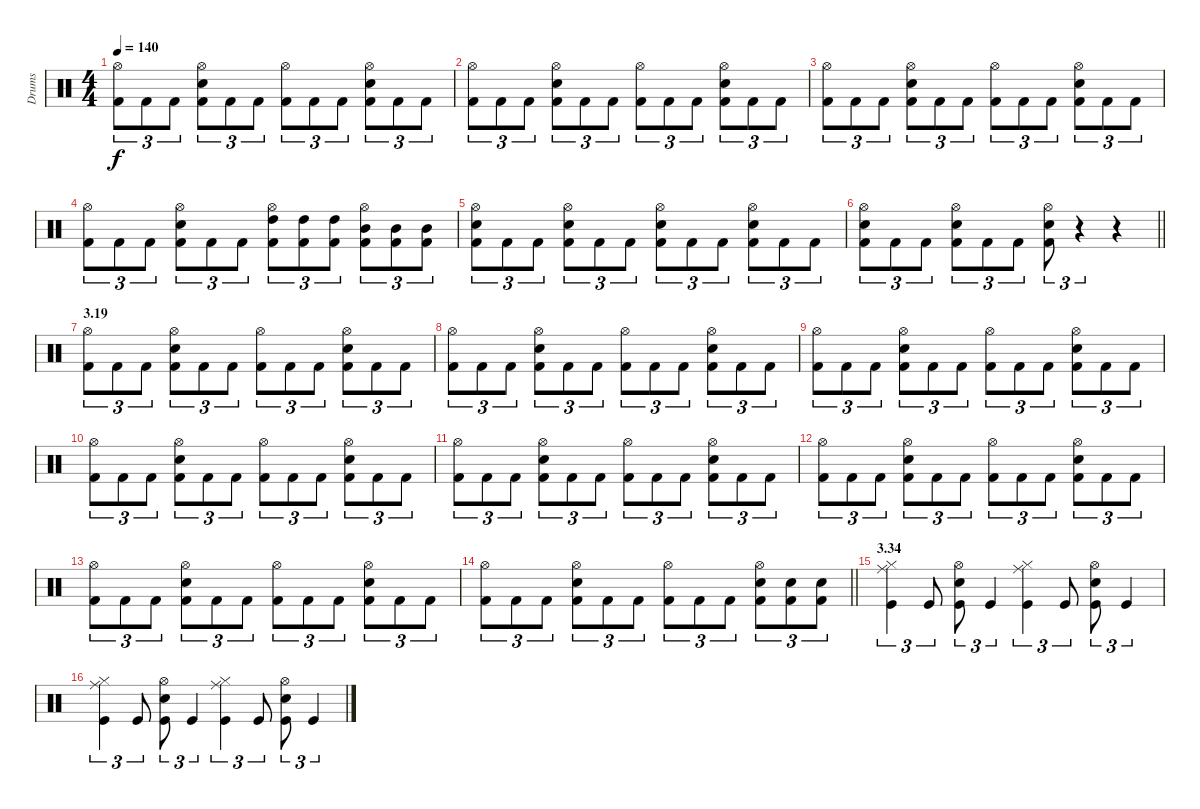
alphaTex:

\track ("Drums" "Drums") {instrument percussion}
\staff {score}
\articulation defaults
\ts (4 4)
\tempo 140
\clef neutral
\ks c
("Hi-Hat (open)" "Kick (hit) 2").8{tu (3 2) dy f} "Kick (hit) 2".8{tu (3 2)} "Kick (hit) 2".8{tu (3 2)} ("Hi-Hat (open)" "Electric Snare (hit)" "Kick (hit) 2").8{tu (3 2)} "Kick (hit) 2".8{tu (3 2)} "Kick (hit) 2".8{tu (3 2)} ("Hi-Hat (open)" "Kick (hit) 2").8{tu (3 2)} "Kick (hit) 2".8{tu (3 2)} "Kick (hit) 2".8{tu (3 2)} ("Hi-Hat (open)" "Electric Snare (hit)" "Kick (hit) 2").8{tu (3 2)} "Kick (hit) 2".8{tu (3 2)} "Kick (hit) 2".8{tu (3 2)} |
("Hi-Hat (open)" "Kick (hit) 2").8{tu (3 2)} "Kick (hit) 2".8{tu (3 2)} "Kick (hit) 2".8{tu (3 2)} ("Hi-Hat (open)" "Electric Snare (hit)" "Kick (hit) 2").8{tu (3 2)} "Kick (hit) 2".8{tu (3 2)} "Kick (hit) 2".8{tu (3 2)} ("Hi-Hat (open)" "Kick (hit) 2").8{tu (3 2)} "Kick (hit) 2".8{tu (3 2)} "Kick (hit) 2".8{tu (3 2)} ("Hi-Hat (open)" "Electric Snare (hit)" "Kick (hit) 2").8{tu (3 2)} "Kick (hit) 2".8{tu (3 2)} "Kick (hit) 2".8{tu (3 2)} |
("Hi-Hat (open)" "Kick (hit) 2").8{tu (3 2)} "Kick (hit) 2".8{tu (3 2)} "Kick (hit) 2".8{tu (3 2)} ("Hi-Hat (open)" "Electric Snare (hit)" "Kick (hit) 2").8{tu (3 2)} "Kick (hit) 2".8{tu (3 2)} "Kick (hit) 2".8{tu (3 2)} ("Hi-Hat (open)" "Kick (hit) 2").8{tu (3 2)} "Kick (hit) 2".8{tu (3 2)} "Kick (hit) 2".8{tu (3 2)} ("Hi-Hat (open)" "Electric Snare (hit)" "Kick (hit) 2").8{tu (3 2)} "Kick (hit) 2".8{tu (3 2)} "Kick (hit) 2".8{tu (3 2)} |
("Hi-Hat (open)" "Kick (hit) 2").8{tu (3 2)} "Kick (hit) 2".8{tu (3 2)} "Kick (hit) 2".8{tu (3 2)} ("Hi-Hat (open)" "Electric Snare (hit)" "Kick (hit) 2").8{tu (3 2)} "Kick (hit) 2".8{tu (3 2)} "Kick (hit) 2".8{tu (3 2)} ("Hi-Hat (open)" "High Tom (hit)" "Kick (hit) 2").8{tu (3 2)} ("High Tom (hit)" "Kick (hit) 2").8{tu (3 2)} ("High Tom (hit)" "Kick (hit) 2").8{tu (3 2)} ("Hi-Hat (open)" "Mid Tom (hit)" "Kick (hit) 2").8{tu (3 2)} ("Mid Tom (hit)" "Kick (hit) 2").8{tu (3 2)} ("Mid Tom (hit)" "Kick (hit) 2").8{tu (3 2)} |
("Hi-Hat (open)" "Electric Snare (hit)" "Kick (hit) 2").8{tu (3 2)} "Kick (hit) 2".8{tu (3 2)} "Kick (hit) 2".8{tu (3 2)} ("Hi-Hat (open)" "Electric Snare (hit)" "Kick (hit) 2").8{tu (3 2)} "Kick (hit) 2".8{tu (3 2)} "Kick (hit) 2".8{tu (3 2)} ("Hi-Hat (open)" "Electric Snare (hit)" "Kick (hit) 2").8{tu (3 2)} "Kick (hit) 2".8{tu (3 2)} "Kick (hit) 2".8{tu (3 2)} ("Hi-Hat (open)" "Electric Snare (hit)" "Kick (hit) 2").8{tu (3 2)} "Kick (hit) 2".8{tu (3 2)} "Kick (hit) 2".8{tu (3 2)} |
\barLineRight lightlight
("Hi-Hat (open)" "Electric Snare (hit)" "Kick (hit) 2").8{tu (3 2)} "Kick (hit) 2".8{tu (3 2)} "Kick (hit) 2".8{tu (3 2)} ("Hi-Hat (open)" "Electric Snare (hit)" "Kick (hit) 2").8{tu (3 2)} "Kick (hit) 2".8{tu (3 2)} "Kick (hit) 2".8{tu (3 2)} ("Hi-Hat (open)" "Electric Snare (hit)" "Kick (hit) 2").8{tu (3 2)} r.4{tu (3 2)} r.4 |
\section ("" "3.19")
("Hi-Hat (open)" "Kick (hit) 2").8{tu (3 2)} "Kick (hit) 2".8{tu (3 2)} "Kick (hit) 2".8{tu (3 2)} ("Hi-Hat (open)" "Electric Snare (hit)" "Kick (hit) 2").8{tu (3 2)} "Kick (hit) 2".8{tu (3 2)} "Kick (hit) 2".8{tu (3 2)} ("Hi-Hat (open)" "Kick (hit) 2").8{tu (3 2)} "Kick (hit) 2".8{tu (3 2)} "Kick (hit) 2".8{tu (3 2)} ("Hi-Hat (open)" "Electric Snare (hit)" "Kick (hit) 2").8{tu (3 2)} "Kick (hit) 2".8{tu (3 2)} "Kick (hit) 2".8{tu (3 2)} |
("Hi-Hat (open)" "Kick (hit) 2").8{tu (3 2)} "Kick (hit) 2".8{tu (3 2)} "Kick (hit) 2".8{tu (3 2)} ("Hi-Hat (open)" "Electric Snare (hit)" "Kick (hit) 2").8{tu (3 2)} "Kick (hit) 2".8{tu (3 2)} "Kick (hit) 2".8{tu (3 2)} ("Hi-Hat (open)" "Kick (hit) 2").8{tu (3 2)} "Kick (hit) 2".8{tu (3 2)} "Kick (hit) 2".8{tu (3 2)} ("Hi-Hat (open)" "Electric Snare (hit)" "Kick (hit) 2").8{tu (3 2)} "Kick (hit) 2".8{tu (3 2)} "Kick (hit) 2".8{tu (3 2)} |
("Hi-Hat (open)" "Kick (hit) 2").8{tu (3 2)} "Kick (hit) 2".8{tu (3 2)} "Kick (hit) 2".8{tu (3 2)} ("Hi-Hat (open)" "Electric Snare (hit)" "Kick (hit) 2").8{tu (3 2)} "Kick (hit) 2".8{tu (3 2)} "Kick (hit) 2".8{tu (3 2)} ("Hi-Hat (open)" "Kick (hit) 2").8{tu (3 2)} "Kick (hit) 2".8{tu (3 2)} "Kick (hit) 2".8{tu (3 2)} ("Hi-Hat (open)" "Electric Snare (hit)" "Kick (hit) 2").8{tu (3 2)} "Kick (hit) 2".8{tu (3 2)} "Kick (hit) 2".8{tu (3 2)} |
("Hi-Hat (open)" "Kick (hit) 2").8{tu (3 2)} "Kick (hit) 2".8{tu (3 2)} "Kick (hit) 2".8{tu (3 2)} ("Hi-Hat (open)" "Electric Snare (hit)" "Kick (hit) 2").8{tu (3 2)} "Kick (hit) 2".8{tu (3 2)} "Kick (hit) 2".8{tu (3 2)} ("Hi-Hat (open)" "Kick (hit) 2").8{tu (3 2)} "Kick (hit) 2".8{tu (3 2)} "Kick (hit) 2".8{tu (3 2)} ("Hi-Hat (open)" "Electric Snare (hit)" "Kick (hit) 2").8{tu (3 2)} "Kick (hit) 2".8{tu (3 2)} "Kick (hit) 2".8{tu (3 2)} |
("Hi-Hat (open)" "Kick (hit) 2").8{tu (3 2)} "Kick (hit) 2".8{tu (3 2)} "Kick (hit) 2".8{tu (3 2)} ("Hi-Hat (open)" "Electric Snare (hit)" "Kick (hit) 2").8{tu (3 2)} "Kick (hit) 2".8{tu (3 2)} "Kick (hit) 2".8{tu (3 2)} ("Hi-Hat (open)" "Kick (hit) 2").8{tu (3 2)} "Kick (hit) 2".8{tu (3 2)} "Kick (hit) 2".8{tu (3 2)} ("Hi-Hat (open)" "Electric Snare (hit)" "Kick (hit) 2").8{tu (3 2)} "Kick (hit) 2".8{tu (3 2)} "Kick (hit) 2".8{tu (3 2)} |
("Hi-Hat (open)" "Kick (hit) 2").8{tu (3 2)} "Kick (hit) 2".8{tu (3 2)} "Kick (hit) 2".8{tu (3 2)} ("Hi-Hat (open)" "Electric Snare (hit)" "Kick (hit) 2").8{tu (3 2)} "Kick (hit) 2".8{tu (3 2)} "Kick (hit) 2".8{tu (3 2)} ("Hi-Hat (open)" "Kick (hit) 2").8{tu (3 2)} "Kick (hit) 2".8{tu (3 2)} "Kick (hit) 2".8{tu (3 2)} ("Hi-Hat (open)" "Electric Snare (hit)" "Kick (hit) 2").8{tu (3 2)} "Kick (hit) 2".8{tu (3 2)} "Kick (hit) 2".8{tu (3 2)} |
("Hi-Hat (open)" "Kick (hit) 2").8{tu (3 2)} "Kick (hit) 2".8{tu (3 2)} "Kick (hit) 2".8{tu (3 2)} ("Hi-Hat (open)" "Electric Snare (hit)" "Kick (hit) 2").8{tu (3 2)} "Kick (hit) 2".8{tu (3 2)} "Kick (hit) 2".8{tu (3 2)} ("Hi-Hat (open)" "Kick (hit) 2").8{tu (3 2)} "Kick (hit) 2".8{tu (3 2)} "Kick (hit) 2".8{tu (3 2)} ("Hi-Hat (open)" "Electric Snare (hit)" "Kick (hit) 2").8{tu (3 2)} "Kick (hit) 2".8{tu (3 2)} "Kick (hit) 2".8{tu (3 2)} |
\barLineRight lightlight
("Hi-Hat (open)" "Kick (hit) 2").8{tu (3 2)} "Kick (hit) 2".8{tu (3 2)} "Kick (hit) 2".8{tu (3 2)} ("Hi-Hat (open)" "Electric Snare (hit)" "Kick (hit) 2").8{tu (3 2)} "Kick (hit) 2".8{tu (3 2)} "Kick (hit) 2".8{tu (3 2)} ("Hi-Hat (open)" "Kick (hit) 2").8{tu (3 2)} "Kick (hit) 2".8{tu (3 2)} "Kick (hit) 2".8{tu (3 2)} ("Hi-Hat (open)" "Electric Snare (hit)" "Kick (hit) 2").8{tu (3 2)} ("Electric Snare (hit)" "Kick (hit) 2").8{tu (3 2)} ("Electric Snare (hit)" "Kick (hit) 2").8{tu (3 2)} |
\section ("" "3.34")
("Hi-Hat (closed)" "Ride (middle)" "Kick (hit)").4{tu (3 2)} "Kick (hit)".8{tu (3 2)} ("Hi-Hat (open)" "Electric Snare (hit)" "Kick (hit)").8{tu (3 2)} "Kick (hit)".4{tu (3 2)} ("Hi-Hat (closed)" "Ride (middle)" "Kick (hit)").4{tu (3 2)} "Kick (hit)".8{tu (3 2)} ("Hi-Hat (open)" "Electric Snare (hit)" "Kick (hit)").8{tu (3 2)} "Kick (hit)".4{tu (3 2)} |
("Hi-Hat (closed)" "Ride (middle)" "Kick (hit)").4{tu (3 2)} "Kick (hit)".8{tu (3 2)} ("Hi-Hat (open)" "Electric Snare (hit)" "Kick (hit)").8{tu (3 2)} "Kick (hit)".4{tu (3 2)} ("Hi-Hat (closed)" "Ride (middle)" "Kick (hit)").4{tu (3 2)} "Kick (hit)".8{tu (3 2)} ("Hi-Hat (open)" "Electric Snare (hit)" "Kick (hit)").8{tu (3 2)} "Kick (hit)".4{tu (3 2)}
